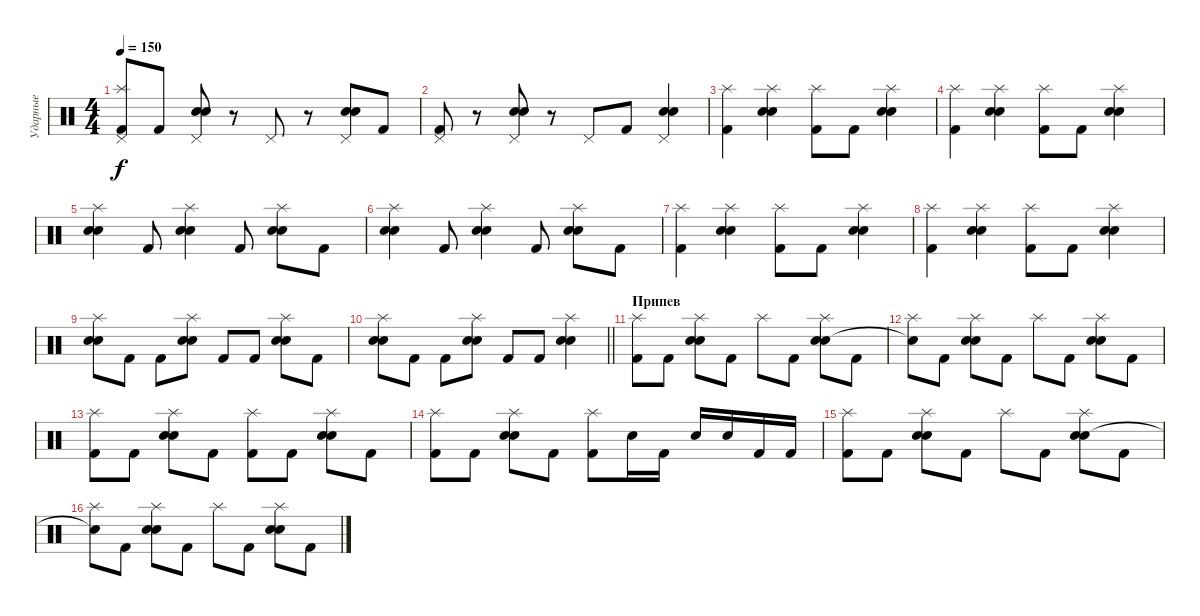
\track ("Ударные" "Ударные") {instrument percussion}
\staff {score}
\articulation defaults
\ts (4 4)
\tempo 150
\clef neutral
\ks c
("Pedal Hi-Hat (hit)" "Splash (hit)" "Kick (hit) 2").8{dy f} "Kick (hit) 2".8 ("Pedal Hi-Hat (hit)" "Electric Snare (hit)" "Snare (hit) 2").8 r.8 "Pedal Hi-Hat (hit)".8 r.8 ("Pedal Hi-Hat (hit)" "Electric Snare (hit)" "Snare (hit) 2").8 "Kick (hit) 2".8 |
("Pedal Hi-Hat (hit)" "Kick (hit) 2").8 r.8 ("Pedal Hi-Hat (hit)" "Electric Snare (hit)" "Snare (hit) 2").8 r.8 "Pedal Hi-Hat (hit)".8 "Kick (hit) 2".8 ("Pedal Hi-Hat (hit)" "Electric Snare (hit)" "Snare (hit) 2").4 |
("Splash (hit)" "Kick (hit) 2").4 ("Splash (hit)" "Electric Snare (hit)" "Snare (hit) 2").4 ("Splash (hit)" "Kick (hit) 2").8 "Kick (hit) 2".8 ("Splash (hit)" "Electric Snare (hit)" "Snare (hit) 2").4 |
("Splash (hit)" "Kick (hit) 2").4 ("Splash (hit)" "Electric Snare (hit)" "Snare (hit) 2").4 ("Splash (hit)" "Kick (hit) 2").8 "Kick (hit) 2".8 ("Splash (hit)" "Electric Snare (hit)" "Snare (hit) 2").4 |
("Splash (hit)" "Electric Snare (hit)" "Snare (hit) 2").4 "Kick (hit) 2".8 ("Splash (hit)" "Electric Snare (hit)" "Snare (hit) 2").4 "Kick (hit) 2".8 ("Splash (hit)" "Electric Snare (hit)" "Snare (hit) 2").8 "Kick (hit) 2".8 |
("Splash (hit)" "Electric Snare (hit)" "Snare (hit) 2").4 "Kick (hit) 2".8 ("Splash (hit)" "Electric Snare (hit)" "Snare (hit) 2").4 "Kick (hit) 2".8 ("Splash (hit)" "Electric Snare (hit)" "Snare (hit) 2").8 "Kick (hit) 2".8 |
("Splash (hit)" "Kick (hit) 2").4 ("Splash (hit)" "Electric Snare (hit)" "Snare (hit) 2").4 ("Splash (hit)" "Kick (hit) 2").8 "Kick (hit) 2".8 ("Splash (hit)" "Electric Snare (hit)" "Snare (hit) 2").4 |
("Splash (hit)" "Kick (hit) 2").4 ("Splash (hit)" "Electric Snare (hit)" "Snare (hit) 2").4 ("Splash (hit)" "Kick (hit) 2").8 "Kick (hit) 2".8 ("Splash (hit)" "Electric Snare (hit)" "Snare (hit) 2").4 |
("Splash (hit)" "Electric Snare (hit)" "Snare (hit) 2").8 "Kick (hit) 2".8 "Kick (hit) 2".8 ("Splash (hit)" "Electric Snare (hit)" "Snare (hit) 2").8 "Kick (hit) 2".8 "Kick (hit) 2".8 ("Splash (hit)" "Electric Snare (hit)" "Snare (hit) 2").8 "Kick (hit) 2".8 |
\barLineRight lightlight
("Splash (hit)" "Electric Snare (hit)" "Snare (hit) 2").8 "Kick (hit) 2".8 "Kick (hit) 2".8 ("Splash (hit)" "Electric Snare (hit)" "Snare (hit) 2").8 "Kick (hit) 2".8 "Kick (hit) 2".8 ("Splash (hit)" "Electric Snare (hit)" "Snare (hit) 2").4 |
\section ("" "Припев")
("Splash (hit)" "Kick (hit) 2").8 "Kick (hit) 2".8 ("Splash (hit)" "Electric Snare (hit)" "Snare (hit) 2").8 "Kick (hit) 2".8 "Splash (hit)".8 "Kick (hit) 2".8 ("Splash (hit)" "Electric Snare (hit)" "Snare (hit) 2").8 "Kick (hit) 2".8 |
("Splash (hit)" "Snare (hit)"{t}).8 "Kick (hit) 2".8 ("Splash (hit)" "Electric Snare (hit)" "Snare (hit) 2").8 "Kick (hit) 2".8 "Splash (hit)".8 "Kick (hit) 2".8 ("Splash (hit)" "Electric Snare (hit)" "Snare (hit) 2").8 "Kick (hit) 2".8 |
("Splash (hit)" "Kick (hit) 2").8 "Kick (hit) 2".8 ("Splash (hit)" "Electric Snare (hit)" "Snare (hit) 2").8 "Kick (hit) 2".8 ("Splash (hit)" "Kick (hit) 2").8 "Kick (hit) 2".8 ("Splash (hit)" "Electric Snare (hit)" "Snare (hit) 2").8 "Kick (hit) 2".8 |
("Splash (hit)" "Kick (hit) 2").8 "Kick (hit) 2".8 ("Splash (hit)" "Electric Snare (hit)" "Snare (hit) 2").8 "Kick (hit) 2".8 ("Splash (hit)" "Kick (hit) 2").8 "Electric Snare (hit)".16 "Kick (hit) 2".16 "Electric Snare (hit)".16 "Electric Snare (hit)".16 "Kick (hit) 2".16 "Kick (hit) 2".16 |
("Splash (hit)" "Kick (hit) 2").8 "Kick (hit) 2".8 ("Splash (hit)" "Electric Snare (hit)" "Snare (hit) 2").8 "Kick (hit) 2".8 "Splash (hit)".8 "Kick (hit) 2".8 ("Splash (hit)" "Electric Snare (hit)" "Snare (hit) 2").8 "Kick (hit) 2".8 |
("Splash (hit)" "Snare (hit)"{t}).8 "Kick (hit) 2".8 ("Splash (hit)" "Electric Snare (hit)" "Snare (hit) 2").8 "Kick (hit) 2".8 "Splash (hit)".8 "Kick (hit) 2".8 ("Splash (hit)" "Electric Snare (hit)" "Snare (hit) 2").8 "Kick (hit) 2".8
